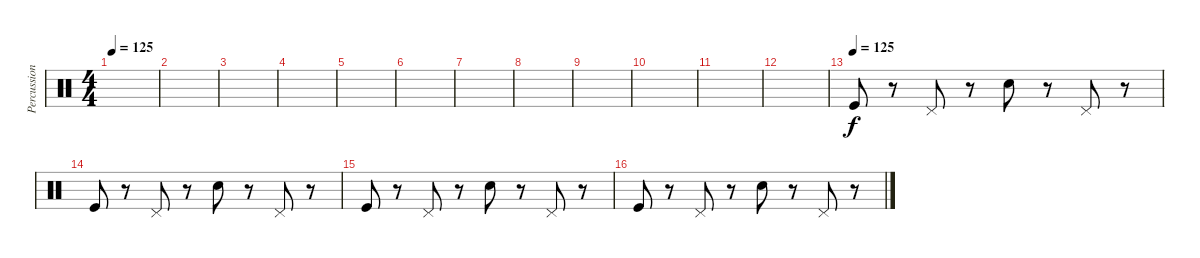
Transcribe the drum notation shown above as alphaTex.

\track ("Percussion" "Percussion") {instrument percussion}
\staff {score}
\articulation defaults
\ts (4 4)
\tempo 125
\clef neutral
\ks c
|
|
|
|
|
|
|
|
|
|
|
|
\tempo (125)
"Kick (hit)".8 r.8 "Pedal Hi-Hat (hit)".8 r.8 "Snare (hit) 2".8 r.8 "Pedal Hi-Hat (hit)".8 r.8 |
"Kick (hit)".8 r.8 "Pedal Hi-Hat (hit)".8 r.8 "Snare (hit) 2".8 r.8 "Pedal Hi-Hat (hit)".8 r.8 |
"Kick (hit)".8 r.8 "Pedal Hi-Hat (hit)".8 r.8 "Snare (hit) 2".8 r.8 "Pedal Hi-Hat (hit)".8 r.8 |
"Kick (hit)".8 r.8 "Pedal Hi-Hat (hit)".8 r.8 "Snare (hit) 2".8 r.8 "Pedal Hi-Hat (hit)".8 r.8
